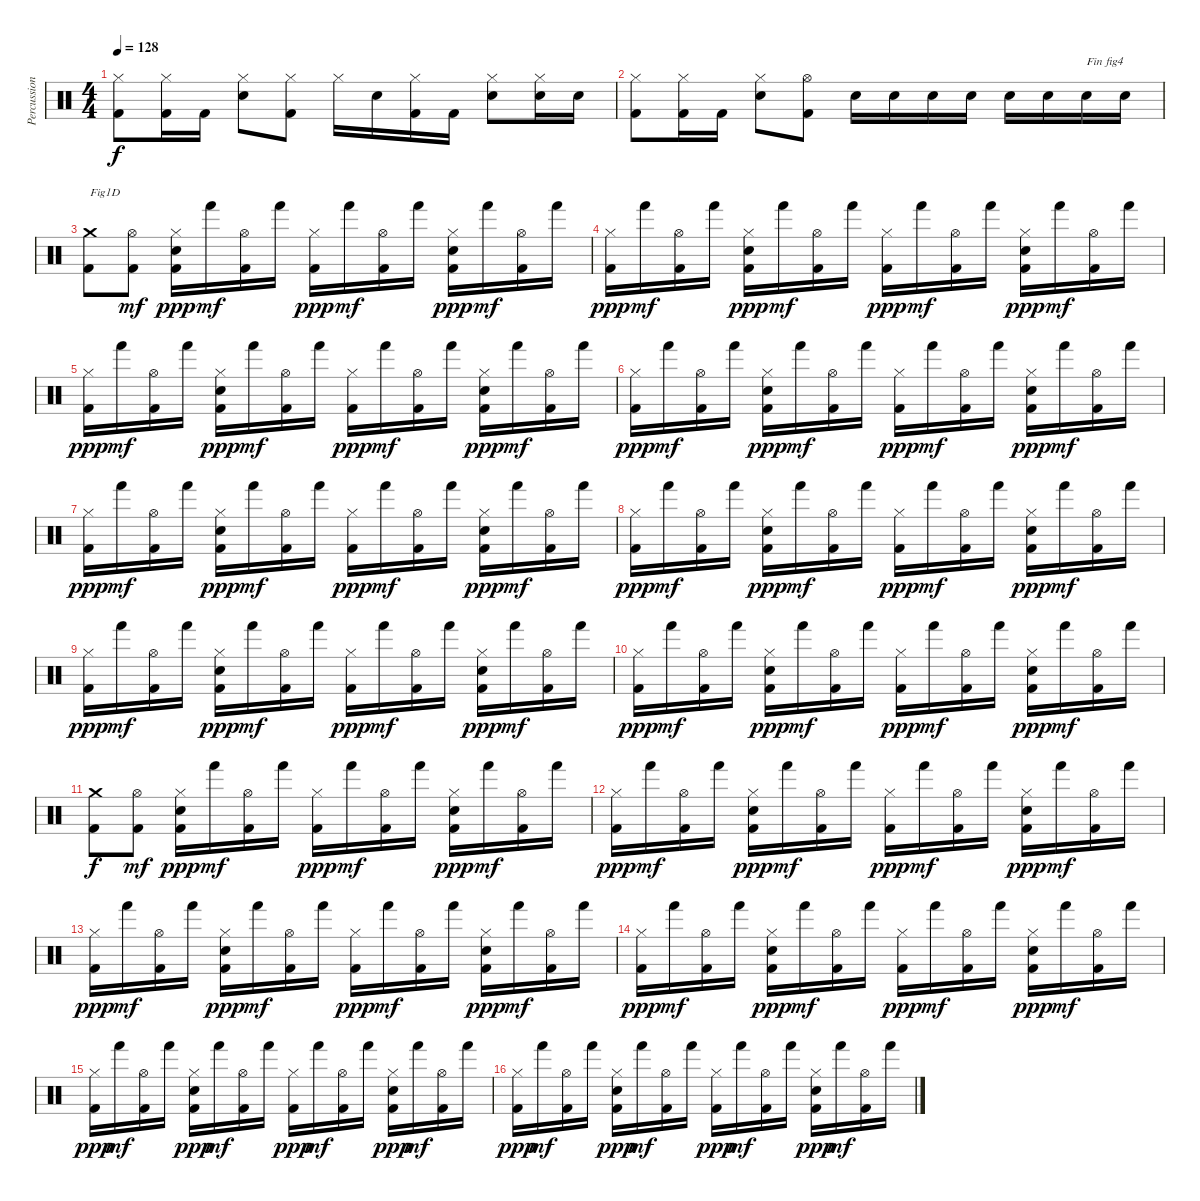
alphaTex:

\track ("Percussions" "Percussion") {instrument percussion}
\staff {score}
\articulation defaults
\ts (4 4)
\tempo 128
\clef neutral
\ks c
("Kick (hit) 2" "Hi-Hat (closed)").8{dy f} ("Kick (hit) 2" "Hi-Hat (closed)").16 "Kick (hit) 2".16 ("Electric Snare (hit)" "Hi-Hat (closed)").8 ("Kick (hit) 2" "Hi-Hat (closed)").8 "Hi-Hat (closed)".16 "Electric Snare (hit)".16 ("Kick (hit) 2" "Hi-Hat (closed)").16 "Kick (hit) 2".16 ("Electric Snare (hit)" "Hi-Hat (closed)").8 ("Electric Snare (hit)" "Hi-Hat (closed)").16 "Electric Snare (hit)".16 |
("Kick (hit) 2" "Hi-Hat (closed)").8 ("Kick (hit) 2" "Hi-Hat (closed)").16 "Kick (hit) 2".16 ("Electric Snare (hit)" "Hi-Hat (closed)").8 ("Kick (hit) 2" "Hi-Hat (open)").8 "Electric Snare (hit)".16 "Electric Snare (hit)".16 "Electric Snare (hit)".16 "Electric Snare (hit)".16 "Electric Snare (hit)".16 "Electric Snare (hit)".16 "Electric Snare (hit)".16{txt "Fin fig4"} "Electric Snare (hit)".16 |
("Kick (hit) 2" "Crash medium (hit)").8{txt "Fig1D"} ("Kick (hit) 2" "Hi-Hat (open)").8{dy mf} ("Kick (hit) 2" "Electric Snare (hit)" "Hi-Hat (closed)").16{dy ppp} "Hand (hit)".16{dy mf} ("Kick (hit) 2" "Hi-Hat (open)").16 "Hand (hit)".16 ("Kick (hit) 2" "Hi-Hat (closed)").16{dy ppp} "Hand (hit)".16{dy mf} ("Kick (hit) 2" "Hi-Hat (open)").16 "Hand (hit)".16 ("Kick (hit) 2" "Electric Snare (hit)" "Hi-Hat (closed)").16{dy ppp} "Hand (hit)".16{dy mf} ("Kick (hit) 2" "Hi-Hat (open)").16 "Hand (hit)".16 |
("Kick (hit) 2" "Hi-Hat (closed)").16{dy ppp} "Hand (hit)".16{dy mf} ("Kick (hit) 2" "Hi-Hat (open)").16 "Hand (hit)".16 ("Kick (hit) 2" "Electric Snare (hit)" "Hi-Hat (closed)").16{dy ppp} "Hand (hit)".16{dy mf} ("Kick (hit) 2" "Hi-Hat (open)").16 "Hand (hit)".16 ("Kick (hit) 2" "Hi-Hat (closed)").16{dy ppp} "Hand (hit)".16{dy mf} ("Kick (hit) 2" "Hi-Hat (open)").16 "Hand (hit)".16 ("Kick (hit) 2" "Electric Snare (hit)" "Hi-Hat (closed)").16{dy ppp} "Hand (hit)".16{dy mf} ("Kick (hit) 2" "Hi-Hat (open)").16 "Hand (hit)".16 |
("Kick (hit) 2" "Hi-Hat (closed)").16{dy ppp} "Hand (hit)".16{dy mf} ("Kick (hit) 2" "Hi-Hat (open)").16 "Hand (hit)".16 ("Kick (hit) 2" "Electric Snare (hit)" "Hi-Hat (closed)").16{dy ppp} "Hand (hit)".16{dy mf} ("Kick (hit) 2" "Hi-Hat (open)").16 "Hand (hit)".16 ("Kick (hit) 2" "Hi-Hat (closed)").16{dy ppp} "Hand (hit)".16{dy mf} ("Kick (hit) 2" "Hi-Hat (open)").16 "Hand (hit)".16 ("Kick (hit) 2" "Electric Snare (hit)" "Hi-Hat (closed)").16{dy ppp} "Hand (hit)".16{dy mf} ("Kick (hit) 2" "Hi-Hat (open)").16 "Hand (hit)".16 |
("Kick (hit) 2" "Hi-Hat (closed)").16{dy ppp} "Hand (hit)".16{dy mf} ("Kick (hit) 2" "Hi-Hat (open)").16 "Hand (hit)".16 ("Kick (hit) 2" "Electric Snare (hit)" "Hi-Hat (closed)").16{dy ppp} "Hand (hit)".16{dy mf} ("Kick (hit) 2" "Hi-Hat (open)").16 "Hand (hit)".16 ("Kick (hit) 2" "Hi-Hat (closed)").16{dy ppp} "Hand (hit)".16{dy mf} ("Kick (hit) 2" "Hi-Hat (open)").16 "Hand (hit)".16 ("Kick (hit) 2" "Electric Snare (hit)" "Hi-Hat (closed)").16{dy ppp} "Hand (hit)".16{dy mf} ("Kick (hit) 2" "Hi-Hat (open)").16 "Hand (hit)".16 |
("Kick (hit) 2" "Hi-Hat (closed)").16{dy ppp} "Hand (hit)".16{dy mf} ("Kick (hit) 2" "Hi-Hat (open)").16 "Hand (hit)".16 ("Kick (hit) 2" "Electric Snare (hit)" "Hi-Hat (closed)").16{dy ppp} "Hand (hit)".16{dy mf} ("Kick (hit) 2" "Hi-Hat (open)").16 "Hand (hit)".16 ("Kick (hit) 2" "Hi-Hat (closed)").16{dy ppp} "Hand (hit)".16{dy mf} ("Kick (hit) 2" "Hi-Hat (open)").16 "Hand (hit)".16 ("Kick (hit) 2" "Electric Snare (hit)" "Hi-Hat (closed)").16{dy ppp} "Hand (hit)".16{dy mf} ("Kick (hit) 2" "Hi-Hat (open)").16 "Hand (hit)".16 |
("Kick (hit) 2" "Hi-Hat (closed)").16{dy ppp} "Hand (hit)".16{dy mf} ("Kick (hit) 2" "Hi-Hat (open)").16 "Hand (hit)".16 ("Kick (hit) 2" "Electric Snare (hit)" "Hi-Hat (closed)").16{dy ppp} "Hand (hit)".16{dy mf} ("Kick (hit) 2" "Hi-Hat (open)").16 "Hand (hit)".16 ("Kick (hit) 2" "Hi-Hat (closed)").16{dy ppp} "Hand (hit)".16{dy mf} ("Kick (hit) 2" "Hi-Hat (open)").16 "Hand (hit)".16 ("Kick (hit) 2" "Electric Snare (hit)" "Hi-Hat (closed)").16{dy ppp} "Hand (hit)".16{dy mf} ("Kick (hit) 2" "Hi-Hat (open)").16 "Hand (hit)".16 |
("Kick (hit) 2" "Hi-Hat (closed)").16{dy ppp} "Hand (hit)".16{dy mf} ("Kick (hit) 2" "Hi-Hat (open)").16 "Hand (hit)".16 ("Kick (hit) 2" "Electric Snare (hit)" "Hi-Hat (closed)").16{dy ppp} "Hand (hit)".16{dy mf} ("Kick (hit) 2" "Hi-Hat (open)").16 "Hand (hit)".16 ("Kick (hit) 2" "Hi-Hat (closed)").16{dy ppp} "Hand (hit)".16{dy mf} ("Kick (hit) 2" "Hi-Hat (open)").16 "Hand (hit)".16 ("Kick (hit) 2" "Electric Snare (hit)" "Hi-Hat (closed)").16{dy ppp} "Hand (hit)".16{dy mf} ("Kick (hit) 2" "Hi-Hat (open)").16 "Hand (hit)".16 |
("Kick (hit) 2" "Hi-Hat (closed)").16{dy ppp} "Hand (hit)".16{dy mf} ("Kick (hit) 2" "Hi-Hat (open)").16 "Hand (hit)".16 ("Kick (hit) 2" "Electric Snare (hit)" "Hi-Hat (closed)").16{dy ppp} "Hand (hit)".16{dy mf} ("Kick (hit) 2" "Hi-Hat (open)").16 "Hand (hit)".16 ("Kick (hit) 2" "Hi-Hat (closed)").16{dy ppp} "Hand (hit)".16{dy mf} ("Kick (hit) 2" "Hi-Hat (open)").16 "Hand (hit)".16 ("Kick (hit) 2" "Electric Snare (hit)" "Hi-Hat (closed)").16{dy ppp} "Hand (hit)".16{dy mf} ("Kick (hit) 2" "Hi-Hat (open)").16 "Hand (hit)".16 |
("Kick (hit) 2" "Crash medium (hit)").8{dy f} ("Kick (hit) 2" "Hi-Hat (open)").8{dy mf} ("Kick (hit) 2" "Electric Snare (hit)" "Hi-Hat (closed)").16{dy ppp} "Hand (hit)".16{dy mf} ("Kick (hit) 2" "Hi-Hat (open)").16 "Hand (hit)".16 ("Kick (hit) 2" "Hi-Hat (closed)").16{dy ppp} "Hand (hit)".16{dy mf} ("Kick (hit) 2" "Hi-Hat (open)").16 "Hand (hit)".16 ("Kick (hit) 2" "Electric Snare (hit)" "Hi-Hat (closed)").16{dy ppp} "Hand (hit)".16{dy mf} ("Kick (hit) 2" "Hi-Hat (open)").16 "Hand (hit)".16 |
("Kick (hit) 2" "Hi-Hat (closed)").16{dy ppp} "Hand (hit)".16{dy mf} ("Kick (hit) 2" "Hi-Hat (open)").16 "Hand (hit)".16 ("Kick (hit) 2" "Electric Snare (hit)" "Hi-Hat (closed)").16{dy ppp} "Hand (hit)".16{dy mf} ("Kick (hit) 2" "Hi-Hat (open)").16 "Hand (hit)".16 ("Kick (hit) 2" "Hi-Hat (closed)").16{dy ppp} "Hand (hit)".16{dy mf} ("Kick (hit) 2" "Hi-Hat (open)").16 "Hand (hit)".16 ("Kick (hit) 2" "Electric Snare (hit)" "Hi-Hat (closed)").16{dy ppp} "Hand (hit)".16{dy mf} ("Kick (hit) 2" "Hi-Hat (open)").16 "Hand (hit)".16 |
("Kick (hit) 2" "Hi-Hat (closed)").16{dy ppp} "Hand (hit)".16{dy mf} ("Kick (hit) 2" "Hi-Hat (open)").16 "Hand (hit)".16 ("Kick (hit) 2" "Electric Snare (hit)" "Hi-Hat (closed)").16{dy ppp} "Hand (hit)".16{dy mf} ("Kick (hit) 2" "Hi-Hat (open)").16 "Hand (hit)".16 ("Kick (hit) 2" "Hi-Hat (closed)").16{dy ppp} "Hand (hit)".16{dy mf} ("Kick (hit) 2" "Hi-Hat (open)").16 "Hand (hit)".16 ("Kick (hit) 2" "Electric Snare (hit)" "Hi-Hat (closed)").16{dy ppp} "Hand (hit)".16{dy mf} ("Kick (hit) 2" "Hi-Hat (open)").16 "Hand (hit)".16 |
("Kick (hit) 2" "Hi-Hat (closed)").16{dy ppp} "Hand (hit)".16{dy mf} ("Kick (hit) 2" "Hi-Hat (open)").16 "Hand (hit)".16 ("Kick (hit) 2" "Electric Snare (hit)" "Hi-Hat (closed)").16{dy ppp} "Hand (hit)".16{dy mf} ("Kick (hit) 2" "Hi-Hat (open)").16 "Hand (hit)".16 ("Kick (hit) 2" "Hi-Hat (closed)").16{dy ppp} "Hand (hit)".16{dy mf} ("Kick (hit) 2" "Hi-Hat (open)").16 "Hand (hit)".16 ("Kick (hit) 2" "Electric Snare (hit)" "Hi-Hat (closed)").16{dy ppp} "Hand (hit)".16{dy mf} ("Kick (hit) 2" "Hi-Hat (open)").16 "Hand (hit)".16 |
("Kick (hit) 2" "Hi-Hat (closed)").16{dy ppp} "Hand (hit)".16{dy mf} ("Kick (hit) 2" "Hi-Hat (open)").16 "Hand (hit)".16 ("Kick (hit) 2" "Electric Snare (hit)" "Hi-Hat (closed)").16{dy ppp} "Hand (hit)".16{dy mf} ("Kick (hit) 2" "Hi-Hat (open)").16 "Hand (hit)".16 ("Kick (hit) 2" "Hi-Hat (closed)").16{dy ppp} "Hand (hit)".16{dy mf} ("Kick (hit) 2" "Hi-Hat (open)").16 "Hand (hit)".16 ("Kick (hit) 2" "Electric Snare (hit)" "Hi-Hat (closed)").16{dy ppp} "Hand (hit)".16{dy mf} ("Kick (hit) 2" "Hi-Hat (open)").16 "Hand (hit)".16 |
("Kick (hit) 2" "Hi-Hat (closed)").16{dy ppp} "Hand (hit)".16{dy mf} ("Kick (hit) 2" "Hi-Hat (open)").16 "Hand (hit)".16 ("Kick (hit) 2" "Electric Snare (hit)" "Hi-Hat (closed)").16{dy ppp} "Hand (hit)".16{dy mf} ("Kick (hit) 2" "Hi-Hat (open)").16 "Hand (hit)".16 ("Kick (hit) 2" "Hi-Hat (closed)").16{dy ppp} "Hand (hit)".16{dy mf} ("Kick (hit) 2" "Hi-Hat (open)").16 "Hand (hit)".16 ("Kick (hit) 2" "Electric Snare (hit)" "Hi-Hat (closed)").16{dy ppp} "Hand (hit)".16{dy mf} ("Kick (hit) 2" "Hi-Hat (open)").16 "Hand (hit)".16
